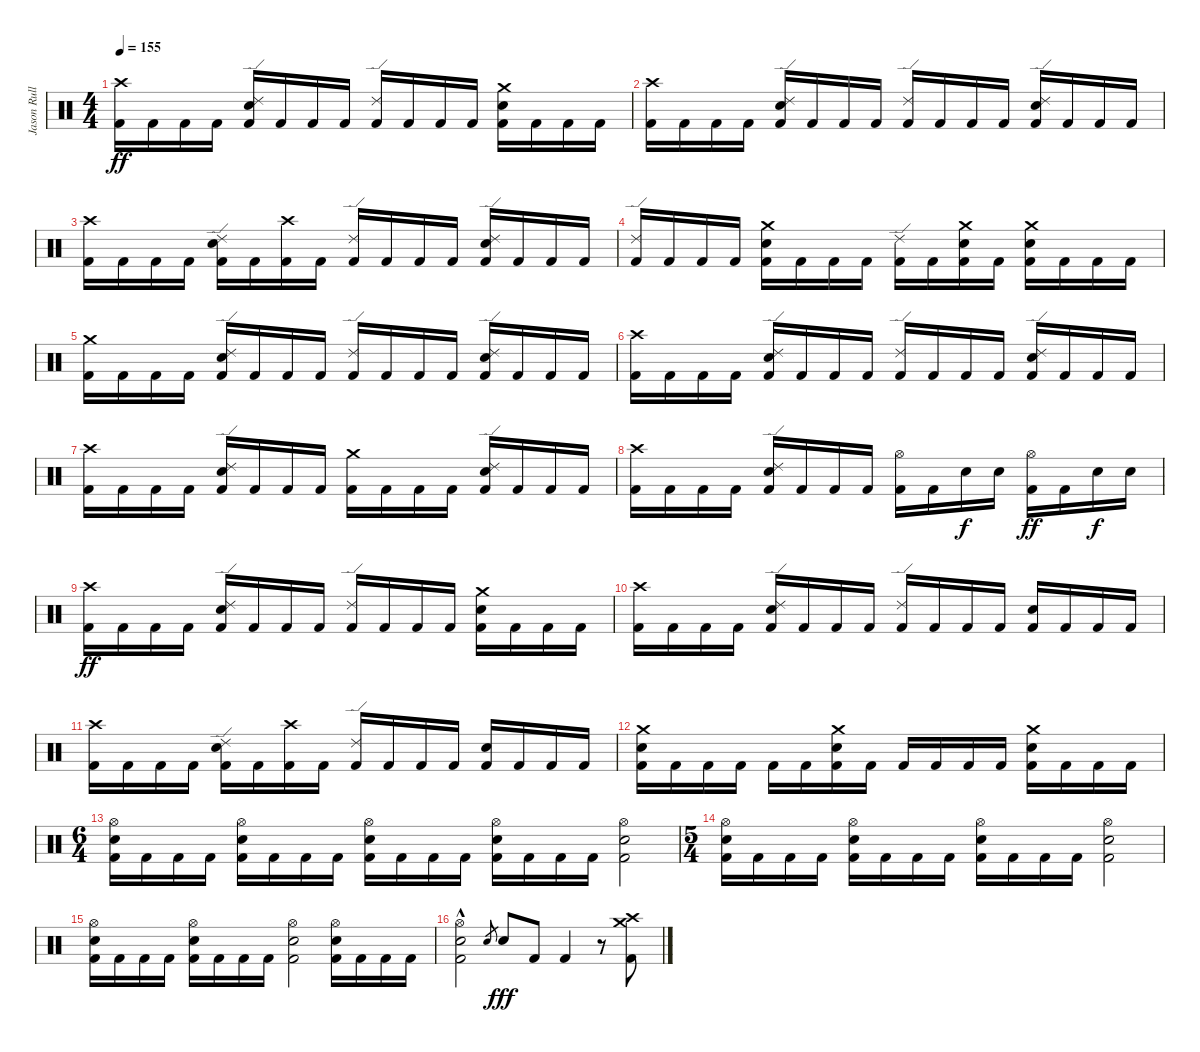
\track ("Jason Rullo" "Jason Rull") {instrument percussion}
\staff {score}
\articulation defaults
\ts (4 4)
\tempo 155
\clef neutral
\ks c
("Crash high (hit)" "Kick (hit) 2").16{dy ff} "Kick (hit) 2".16 "Kick (hit) 2".16 "Kick (hit) 2".16 ("Ride (edge) 2" "Electric Snare (hit)" "Kick (hit) 2").16 "Kick (hit) 2".16 "Kick (hit) 2".16 "Kick (hit) 2".16 ("Ride (edge) 2" "Kick (hit) 2").16 "Kick (hit) 2".16 "Kick (hit) 2".16 "Kick (hit) 2".16 ("Crash medium (hit)" "Electric Snare (hit)" "Kick (hit) 2").16 "Kick (hit) 2".16 "Kick (hit) 2".16 "Kick (hit) 2".16 |
("Crash high (hit)" "Kick (hit) 2").16 "Kick (hit) 2".16 "Kick (hit) 2".16 "Kick (hit) 2".16 ("Ride (edge) 2" "Electric Snare (hit)" "Kick (hit) 2").16 "Kick (hit) 2".16 "Kick (hit) 2".16 "Kick (hit) 2".16 ("Ride (edge) 2" "Kick (hit) 2").16 "Kick (hit) 2".16 "Kick (hit) 2".16 "Kick (hit) 2".16 ("Ride (edge) 2" "Electric Snare (hit)" "Kick (hit) 2").16 "Kick (hit) 2".16 "Kick (hit) 2".16 "Kick (hit) 2".16 |
("Crash high (hit)" "Kick (hit) 2").16 "Kick (hit) 2".16 "Kick (hit) 2".16 "Kick (hit) 2".16 ("Ride (edge) 2" "Electric Snare (hit)" "Kick (hit) 2").16 "Kick (hit) 2".16 ("Crash high (hit)" "Kick (hit) 2").16 "Kick (hit) 2".16 ("Ride (edge) 2" "Kick (hit) 2").16 "Kick (hit) 2".16 "Kick (hit) 2".16 "Kick (hit) 2".16 ("Ride (edge) 2" "Electric Snare (hit)" "Kick (hit) 2").16 "Kick (hit) 2".16 "Kick (hit) 2".16 "Kick (hit) 2".16 |
("Ride (edge) 2" "Kick (hit) 2").16 "Kick (hit) 2".16 "Kick (hit) 2".16 "Kick (hit) 2".16 ("Crash medium (hit)" "Electric Snare (hit)" "Kick (hit) 2").16 "Kick (hit) 2".16 "Kick (hit) 2".16 "Kick (hit) 2".16 ("Ride (edge) 2" "Kick (hit) 2").16 "Kick (hit) 2".16 ("Crash medium (hit)" "Electric Snare (hit)" "Kick (hit) 2").16 "Kick (hit) 2".16 ("Crash medium (hit)" "Electric Snare (hit)" "Kick (hit) 2").16 "Kick (hit) 2".16 "Kick (hit) 2".16 "Kick (hit) 2".16 |
("Crash medium (hit)" "Kick (hit) 2").16 "Kick (hit) 2".16 "Kick (hit) 2".16 "Kick (hit) 2".16 ("Ride (edge) 2" "Electric Snare (hit)" "Kick (hit) 2").16 "Kick (hit) 2".16 "Kick (hit) 2".16 "Kick (hit) 2".16 ("Ride (edge) 2" "Kick (hit) 2").16 "Kick (hit) 2".16 "Kick (hit) 2".16 "Kick (hit) 2".16 ("Ride (edge) 2" "Electric Snare (hit)" "Kick (hit) 2").16 "Kick (hit) 2".16 "Kick (hit) 2".16 "Kick (hit) 2".16 |
("Crash high (hit)" "Kick (hit) 2").16 "Kick (hit) 2".16 "Kick (hit) 2".16 "Kick (hit) 2".16 ("Ride (edge) 2" "Electric Snare (hit)" "Kick (hit) 2").16 "Kick (hit) 2".16 "Kick (hit) 2".16 "Kick (hit) 2".16 ("Ride (edge) 2" "Kick (hit) 2").16 "Kick (hit) 2".16 "Kick (hit) 2".16 "Kick (hit) 2".16 ("Ride (edge) 2" "Electric Snare (hit)" "Kick (hit) 2").16 "Kick (hit) 2".16 "Kick (hit) 2".16 "Kick (hit) 2".16 |
("Crash high (hit)" "Kick (hit) 2").16 "Kick (hit) 2".16 "Kick (hit) 2".16 "Kick (hit) 2".16 ("Ride (edge) 2" "Electric Snare (hit)" "Kick (hit) 2").16 "Kick (hit) 2".16 "Kick (hit) 2".16 "Kick (hit) 2".16 ("Crash medium (hit)" "Kick (hit) 2").16 "Kick (hit) 2".16 "Kick (hit) 2".16 "Kick (hit) 2".16 ("Ride (edge) 2" "Electric Snare (hit)" "Kick (hit) 2").16 "Kick (hit) 2".16 "Kick (hit) 2".16 "Kick (hit) 2".16 |
("Crash high (hit)" "Kick (hit) 2").16 "Kick (hit) 2".16 "Kick (hit) 2".16 "Kick (hit) 2".16 ("Ride (edge) 2" "Electric Snare (hit)" "Kick (hit) 2").16 "Kick (hit) 2".16 "Kick (hit) 2".16 "Kick (hit) 2".16 ("Hi-Hat (open)" "Kick (hit) 2").16 "Kick (hit) 2".16 "Electric Snare (hit)".16{dy f} "Electric Snare (hit)".16 ("Hi-Hat (open)" "Kick (hit) 2").16{dy ff} "Kick (hit) 2".16 "Electric Snare (hit)".16{dy f} "Electric Snare (hit)".16 |
("Crash high (hit)" "Kick (hit) 2").16{dy ff} "Kick (hit) 2".16 "Kick (hit) 2".16 "Kick (hit) 2".16 ("Ride (edge) 2" "Electric Snare (hit)" "Kick (hit) 2").16 "Kick (hit) 2".16 "Kick (hit) 2".16 "Kick (hit) 2".16 ("Ride (edge) 2" "Kick (hit) 2").16 "Kick (hit) 2".16 "Kick (hit) 2".16 "Kick (hit) 2".16 ("Crash medium (hit)" "Electric Snare (hit)" "Kick (hit) 2").16 "Kick (hit) 2".16 "Kick (hit) 2".16 "Kick (hit) 2".16 |
("Crash high (hit)" "Kick (hit) 2").16 "Kick (hit) 2".16 "Kick (hit) 2".16 "Kick (hit) 2".16 ("Ride (edge) 2" "Electric Snare (hit)" "Kick (hit) 2").16 "Kick (hit) 2".16 "Kick (hit) 2".16 "Kick (hit) 2".16 ("Ride (edge) 2" "Kick (hit) 2").16 "Kick (hit) 2".16 "Kick (hit) 2".16 "Kick (hit) 2".16 ("Electric Snare (hit)" "Kick (hit) 2").16 "Kick (hit) 2".16 "Kick (hit) 2".16 "Kick (hit) 2".16 |
("Crash high (hit)" "Kick (hit) 2").16 "Kick (hit) 2".16 "Kick (hit) 2".16 "Kick (hit) 2".16 ("Ride (edge) 2" "Electric Snare (hit)" "Kick (hit) 2").16 "Kick (hit) 2".16 ("Crash high (hit)" "Kick (hit) 2").16 "Kick (hit) 2".16 ("Ride (edge) 2" "Kick (hit) 2").16 "Kick (hit) 2".16 "Kick (hit) 2".16 "Kick (hit) 2".16 ("Electric Snare (hit)" "Kick (hit) 2").16 "Kick (hit) 2".16 "Kick (hit) 2".16 "Kick (hit) 2".16 |
("Crash medium (hit)" "Electric Snare (hit)" "Kick (hit) 2").16 "Kick (hit) 2".16 "Kick (hit) 2".16 "Kick (hit) 2".16 "Kick (hit) 2".16 "Kick (hit) 2".16 ("Crash medium (hit)" "Electric Snare (hit)" "Kick (hit) 2").16 "Kick (hit) 2".16 "Kick (hit) 2".16 "Kick (hit) 2".16 "Kick (hit) 2".16 "Kick (hit) 2".16 ("Crash medium (hit)" "Electric Snare (hit)" "Kick (hit) 2").16 "Kick (hit) 2".16 "Kick (hit) 2".16 "Kick (hit) 2".16 |
\ts (6 4)
("Hi-Hat (open)" "Electric Snare (hit)" "Kick (hit) 2").16 "Kick (hit) 2".16 "Kick (hit) 2".16 "Kick (hit) 2".16 ("Hi-Hat (open)" "Electric Snare (hit)" "Kick (hit) 2").16 "Kick (hit) 2".16 "Kick (hit) 2".16 "Kick (hit) 2".16 ("Hi-Hat (open)" "Electric Snare (hit)" "Kick (hit) 2").16 "Kick (hit) 2".16 "Kick (hit) 2".16 "Kick (hit) 2".16 ("Hi-Hat (open)" "Electric Snare (hit)" "Kick (hit) 2").16 "Kick (hit) 2".16 "Kick (hit) 2".16 "Kick (hit) 2".16 ("Hi-Hat (open)" "Electric Snare (hit)" "Kick (hit) 2").2 |
\ts (5 4)
("Hi-Hat (open)" "Electric Snare (hit)" "Kick (hit) 2").16 "Kick (hit) 2".16 "Kick (hit) 2".16 "Kick (hit) 2".16 ("Hi-Hat (open)" "Electric Snare (hit)" "Kick (hit) 2").16 "Kick (hit) 2".16 "Kick (hit) 2".16 "Kick (hit) 2".16 ("Hi-Hat (open)" "Electric Snare (hit)" "Kick (hit) 2").16 "Kick (hit) 2".16 "Kick (hit) 2".16 "Kick (hit) 2".16 ("Hi-Hat (open)" "Electric Snare (hit)" "Kick (hit) 2").2 |
("Hi-Hat (open)" "Electric Snare (hit)" "Kick (hit) 2").16 "Kick (hit) 2".16 "Kick (hit) 2".16 "Kick (hit) 2".16 ("Hi-Hat (open)" "Electric Snare (hit)" "Kick (hit) 2").16 "Kick (hit) 2".16 "Kick (hit) 2".16 "Kick (hit) 2".16 ("Hi-Hat (open)" "Electric Snare (hit)" "Kick (hit) 2").2 ("Hi-Hat (open)" "Electric Snare (hit)" "Kick (hit) 2").16 "Kick (hit) 2".16 "Kick (hit) 2".16 "Kick (hit) 2".16 |
("Hi-Hat (open)" "Electric Snare (hit)"{hac} "Kick (hit) 2").2 "Electric Snare (hit)".8{gr} "Electric Snare (hit)".8{dy fff} "Kick (hit) 2".8 "Kick (hit) 2".4 r.8 ("Crash high (hit)" "Crash medium (hit)" "Kick (hit) 2").8
